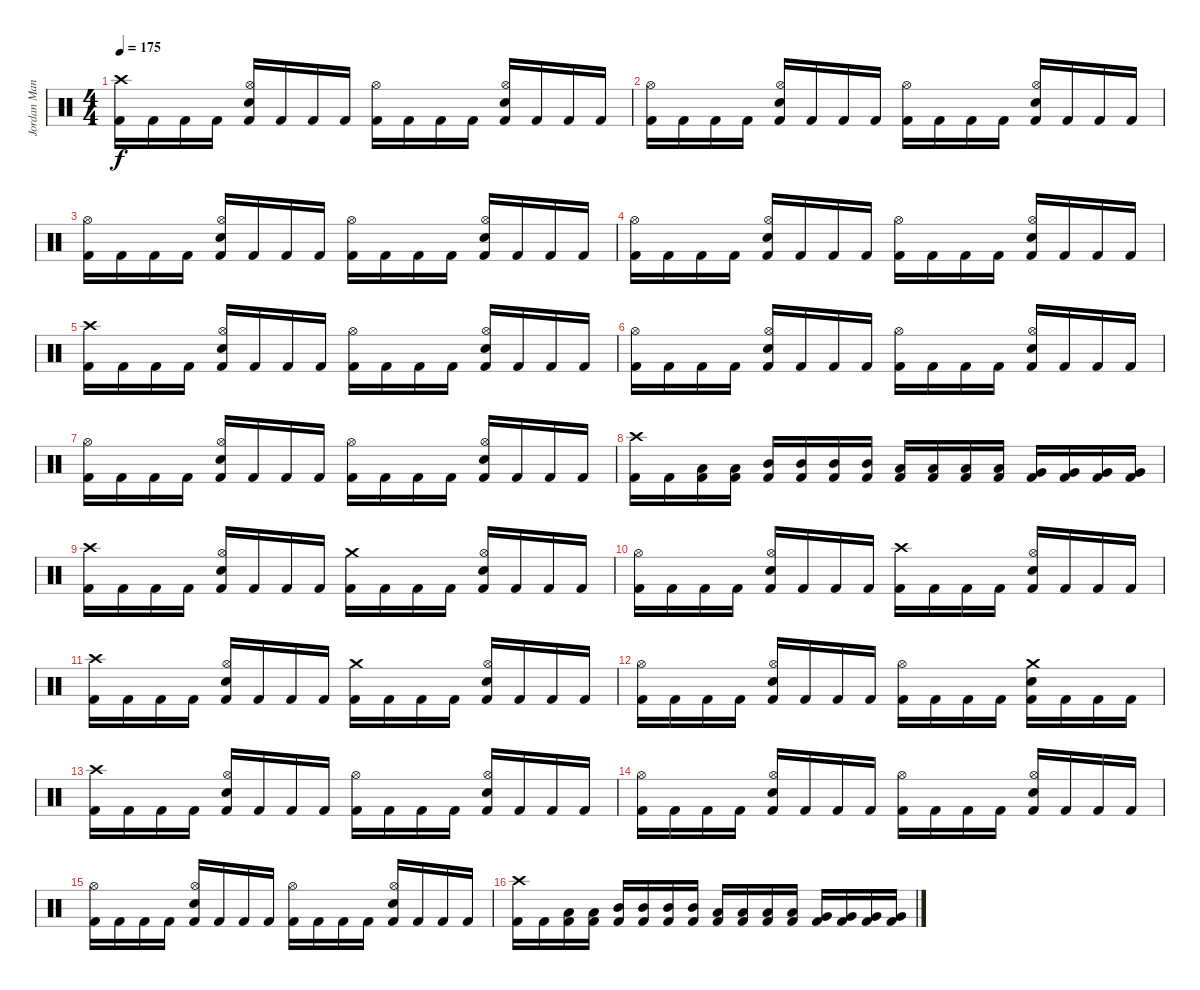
\track ("Jordan Mancini" "Jordan Man") {instrument percussion}
\staff {score}
\articulation defaults
\ts (4 4)
\tempo 175
\clef neutral
\ks c
("Crash high (hit)" "Kick (hit) 2").16{dy f} "Kick (hit) 2".16 "Kick (hit) 2".16 "Kick (hit) 2".16 ("Hi-Hat (open)" "Snare (hit) 2" "Kick (hit) 2").16 "Kick (hit) 2".16 "Kick (hit) 2".16 "Kick (hit) 2".16 ("Hi-Hat (open)" "Kick (hit) 2").16 "Kick (hit) 2".16 "Kick (hit) 2".16 "Kick (hit) 2".16 ("Hi-Hat (open)" "Snare (hit) 2" "Kick (hit) 2").16 "Kick (hit) 2".16 "Kick (hit) 2".16 "Kick (hit) 2".16 |
("Hi-Hat (open)" "Kick (hit) 2").16 "Kick (hit) 2".16 "Kick (hit) 2".16 "Kick (hit) 2".16 ("Hi-Hat (open)" "Snare (hit) 2" "Kick (hit) 2").16 "Kick (hit) 2".16 "Kick (hit) 2".16 "Kick (hit) 2".16 ("Hi-Hat (open)" "Kick (hit) 2").16 "Kick (hit) 2".16 "Kick (hit) 2".16 "Kick (hit) 2".16 ("Hi-Hat (open)" "Snare (hit) 2" "Kick (hit) 2").16 "Kick (hit) 2".16 "Kick (hit) 2".16 "Kick (hit) 2".16 |
("Hi-Hat (open)" "Kick (hit) 2").16 "Kick (hit) 2".16 "Kick (hit) 2".16 "Kick (hit) 2".16 ("Hi-Hat (open)" "Snare (hit) 2" "Kick (hit) 2").16 "Kick (hit) 2".16 "Kick (hit) 2".16 "Kick (hit) 2".16 ("Hi-Hat (open)" "Kick (hit) 2").16 "Kick (hit) 2".16 "Kick (hit) 2".16 "Kick (hit) 2".16 ("Hi-Hat (open)" "Snare (hit) 2" "Kick (hit) 2").16 "Kick (hit) 2".16 "Kick (hit) 2".16 "Kick (hit) 2".16 |
("Hi-Hat (open)" "Kick (hit) 2").16 "Kick (hit) 2".16 "Kick (hit) 2".16 "Kick (hit) 2".16 ("Hi-Hat (open)" "Snare (hit) 2" "Kick (hit) 2").16 "Kick (hit) 2".16 "Kick (hit) 2".16 "Kick (hit) 2".16 ("Hi-Hat (open)" "Kick (hit) 2").16 "Kick (hit) 2".16 "Kick (hit) 2".16 "Kick (hit) 2".16 ("Hi-Hat (open)" "Snare (hit) 2" "Kick (hit) 2").16 "Kick (hit) 2".16 "Kick (hit) 2".16 "Kick (hit) 2".16 |
("Crash high (hit)" "Kick (hit) 2").16 "Kick (hit) 2".16 "Kick (hit) 2".16 "Kick (hit) 2".16 ("Hi-Hat (open)" "Snare (hit) 2" "Kick (hit) 2").16 "Kick (hit) 2".16 "Kick (hit) 2".16 "Kick (hit) 2".16 ("Hi-Hat (open)" "Kick (hit) 2").16 "Kick (hit) 2".16 "Kick (hit) 2".16 "Kick (hit) 2".16 ("Hi-Hat (open)" "Snare (hit) 2" "Kick (hit) 2").16 "Kick (hit) 2".16 "Kick (hit) 2".16 "Kick (hit) 2".16 |
("Hi-Hat (open)" "Kick (hit) 2").16 "Kick (hit) 2".16 "Kick (hit) 2".16 "Kick (hit) 2".16 ("Hi-Hat (open)" "Snare (hit) 2" "Kick (hit) 2").16 "Kick (hit) 2".16 "Kick (hit) 2".16 "Kick (hit) 2".16 ("Hi-Hat (open)" "Kick (hit) 2").16 "Kick (hit) 2".16 "Kick (hit) 2".16 "Kick (hit) 2".16 ("Hi-Hat (open)" "Snare (hit) 2" "Kick (hit) 2").16 "Kick (hit) 2".16 "Kick (hit) 2".16 "Kick (hit) 2".16 |
("Hi-Hat (open)" "Kick (hit) 2").16 "Kick (hit) 2".16 "Kick (hit) 2".16 "Kick (hit) 2".16 ("Hi-Hat (open)" "Snare (hit) 2" "Kick (hit) 2").16 "Kick (hit) 2".16 "Kick (hit) 2".16 "Kick (hit) 2".16 ("Hi-Hat (open)" "Kick (hit) 2").16 "Kick (hit) 2".16 "Kick (hit) 2".16 "Kick (hit) 2".16 ("Hi-Hat (open)" "Snare (hit) 2" "Kick (hit) 2").16 "Kick (hit) 2".16 "Kick (hit) 2".16 "Kick (hit) 2".16 |
("Crash high (hit)" "Kick (hit) 2").16 "Kick (hit) 2".16 ("Low Tom (hit)" "Kick (hit) 2").16 ("Low Tom (hit)" "Kick (hit) 2").16 ("Mid Tom (hit)" "Kick (hit) 2").16 ("Mid Tom (hit)" "Kick (hit) 2").16 ("Mid Tom (hit)" "Kick (hit) 2").16 ("Mid Tom (hit)" "Kick (hit) 2").16 ("Low Tom (hit)" "Kick (hit) 2").16 ("Low Tom (hit)" "Kick (hit) 2").16 ("Low Tom (hit)" "Kick (hit) 2").16 ("Low Tom (hit)" "Kick (hit) 2").16 ("Very Low Tom (hit)" "Kick (hit) 2").16 ("Very Low Tom (hit)" "Kick (hit) 2").16 ("Very Low Tom (hit)" "Kick (hit) 2").16 ("Very Low Tom (hit)" "Kick (hit) 2").16 |
("Crash high (hit)" "Kick (hit) 2").16 "Kick (hit) 2".16 "Kick (hit) 2".16 "Kick (hit) 2".16 ("Hi-Hat (open)" "Snare (hit) 2" "Kick (hit) 2").16 "Kick (hit) 2".16 "Kick (hit) 2".16 "Kick (hit) 2".16 ("Crash medium (hit)" "Kick (hit) 2").16 "Kick (hit) 2".16 "Kick (hit) 2".16 "Kick (hit) 2".16 ("Hi-Hat (open)" "Snare (hit) 2" "Kick (hit) 2").16 "Kick (hit) 2".16 "Kick (hit) 2".16 "Kick (hit) 2".16 |
("Hi-Hat (open)" "Kick (hit) 2").16 "Kick (hit) 2".16 "Kick (hit) 2".16 "Kick (hit) 2".16 ("Hi-Hat (open)" "Snare (hit) 2" "Kick (hit) 2").16 "Kick (hit) 2".16 "Kick (hit) 2".16 "Kick (hit) 2".16 ("Crash high (hit)" "Kick (hit) 2").16 "Kick (hit) 2".16 "Kick (hit) 2".16 "Kick (hit) 2".16 ("Hi-Hat (open)" "Snare (hit) 2" "Kick (hit) 2").16 "Kick (hit) 2".16 "Kick (hit) 2".16 "Kick (hit) 2".16 |
("Crash high (hit)" "Kick (hit) 2").16 "Kick (hit) 2".16 "Kick (hit) 2".16 "Kick (hit) 2".16 ("Hi-Hat (open)" "Snare (hit) 2" "Kick (hit) 2").16 "Kick (hit) 2".16 "Kick (hit) 2".16 "Kick (hit) 2".16 ("Crash medium (hit)" "Kick (hit) 2").16 "Kick (hit) 2".16 "Kick (hit) 2".16 "Kick (hit) 2".16 ("Hi-Hat (open)" "Snare (hit) 2" "Kick (hit) 2").16 "Kick (hit) 2".16 "Kick (hit) 2".16 "Kick (hit) 2".16 |
("Hi-Hat (open)" "Kick (hit) 2").16 "Kick (hit) 2".16 "Kick (hit) 2".16 "Kick (hit) 2".16 ("Hi-Hat (open)" "Snare (hit) 2" "Kick (hit) 2").16 "Kick (hit) 2".16 "Kick (hit) 2".16 "Kick (hit) 2".16 ("Hi-Hat (open)" "Kick (hit) 2").16 "Kick (hit) 2".16 "Kick (hit) 2".16 "Kick (hit) 2".16 ("Crash medium (hit)" "Snare (hit) 2" "Kick (hit) 2").16 "Kick (hit) 2".16 "Kick (hit) 2".16 "Kick (hit) 2".16 |
("Crash high (hit)" "Kick (hit) 2").16 "Kick (hit) 2".16 "Kick (hit) 2".16 "Kick (hit) 2".16 ("Hi-Hat (open)" "Snare (hit) 2" "Kick (hit) 2").16 "Kick (hit) 2".16 "Kick (hit) 2".16 "Kick (hit) 2".16 ("Hi-Hat (open)" "Kick (hit) 2").16 "Kick (hit) 2".16 "Kick (hit) 2".16 "Kick (hit) 2".16 ("Hi-Hat (open)" "Snare (hit) 2" "Kick (hit) 2").16 "Kick (hit) 2".16 "Kick (hit) 2".16 "Kick (hit) 2".16 |
("Hi-Hat (open)" "Kick (hit) 2").16 "Kick (hit) 2".16 "Kick (hit) 2".16 "Kick (hit) 2".16 ("Hi-Hat (open)" "Snare (hit) 2" "Kick (hit) 2").16 "Kick (hit) 2".16 "Kick (hit) 2".16 "Kick (hit) 2".16 ("Hi-Hat (open)" "Kick (hit) 2").16 "Kick (hit) 2".16 "Kick (hit) 2".16 "Kick (hit) 2".16 ("Hi-Hat (open)" "Snare (hit) 2" "Kick (hit) 2").16 "Kick (hit) 2".16 "Kick (hit) 2".16 "Kick (hit) 2".16 |
("Hi-Hat (open)" "Kick (hit) 2").16 "Kick (hit) 2".16 "Kick (hit) 2".16 "Kick (hit) 2".16 ("Hi-Hat (open)" "Snare (hit) 2" "Kick (hit) 2").16 "Kick (hit) 2".16 "Kick (hit) 2".16 "Kick (hit) 2".16 ("Hi-Hat (open)" "Kick (hit) 2").16 "Kick (hit) 2".16 "Kick (hit) 2".16 "Kick (hit) 2".16 ("Hi-Hat (open)" "Snare (hit) 2" "Kick (hit) 2").16 "Kick (hit) 2".16 "Kick (hit) 2".16 "Kick (hit) 2".16 |
("Crash high (hit)" "Kick (hit) 2").16 "Kick (hit) 2".16 ("Low Tom (hit)" "Kick (hit) 2").16 ("Low Tom (hit)" "Kick (hit) 2").16 ("Mid Tom (hit)" "Kick (hit) 2").16 ("Mid Tom (hit)" "Kick (hit) 2").16 ("Mid Tom (hit)" "Kick (hit) 2").16 ("Mid Tom (hit)" "Kick (hit) 2").16 ("Low Tom (hit)" "Kick (hit) 2").16 ("Low Tom (hit)" "Kick (hit) 2").16 ("Low Tom (hit)" "Kick (hit) 2").16 ("Low Tom (hit)" "Kick (hit) 2").16 ("Very Low Tom (hit)" "Kick (hit) 2").16 ("Very Low Tom (hit)" "Kick (hit) 2").16 ("Very Low Tom (hit)" "Kick (hit) 2").16 ("Very Low Tom (hit)" "Kick (hit) 2").16
